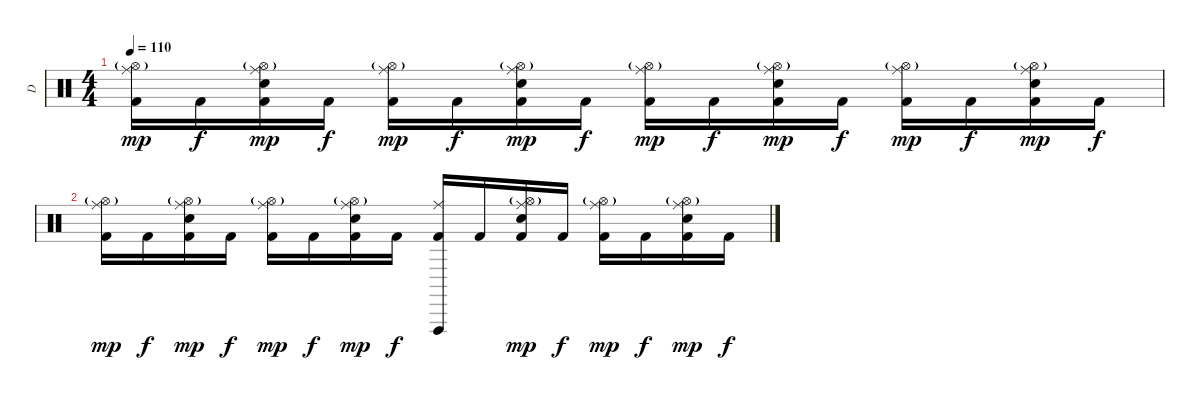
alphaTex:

\track ("D" "D") {instrument percussion}
\staff {score}
\articulation defaults
\ts (4 4)
\tempo 110
\clef neutral
\ks c
("Ride (middle)" "Hi-Hat (open)"{g} "Kick (hit) 2").16{dy mp} "Kick (hit) 2".16{dy f} ("Ride (middle)" "Hi-Hat (open)"{g} "Electric Snare (hit)" "Kick (hit) 2").16{dy mp} "Kick (hit) 2".16{dy f} ("Ride (middle)" "Hi-Hat (open)"{g} "Kick (hit) 2").16{dy mp} "Kick (hit) 2".16{dy f} ("Ride (middle)" "Hi-Hat (open)"{g} "Electric Snare (hit)" "Kick (hit) 2").16{dy mp} "Kick (hit) 2".16{dy f} ("Ride (middle)" "Hi-Hat (open)"{g} "Kick (hit) 2").16{dy mp} "Kick (hit) 2".16{dy f} ("Ride (middle)" "Hi-Hat (open)"{g} "Electric Snare (hit)" "Kick (hit) 2").16{dy mp} "Kick (hit) 2".16{dy f} ("Ride (middle)" "Hi-Hat (open)"{g} "Kick (hit) 2").16{dy mp} "Kick (hit) 2".16{dy f} ("Ride (middle)" "Hi-Hat (open)"{g} "Electric Snare (hit)" "Kick (hit) 2").16{dy mp} "Kick (hit) 2".16{dy f} |
("Ride (middle)" "Hi-Hat (open)"{g} "Kick (hit) 2").16{dy mp} "Kick (hit) 2".16{dy f} ("Ride (middle)" "Hi-Hat (open)"{g} "Electric Snare (hit)" "Kick (hit) 2").16{dy mp} "Kick (hit) 2".16{dy f} ("Ride (middle)" "Hi-Hat (open)"{g} "Kick (hit) 2").16{dy mp} "Kick (hit) 2".16{dy f} ("Ride (middle)" "Hi-Hat (open)"{g} "Electric Snare (hit)" "Kick (hit) 2").16{dy mp} "Kick (hit) 2".16{dy f} ("Ride (middle)" "Vibraslap (hit)" "Kick (hit) 2").16 "Kick (hit) 2".16 ("Ride (middle)" "Hi-Hat (open)"{g} "Electric Snare (hit)" "Kick (hit) 2").16{dy mp} "Kick (hit) 2".16{dy f} ("Ride (middle)" "Hi-Hat (open)"{g} "Kick (hit) 2").16{dy mp} "Kick (hit) 2".16{dy f} ("Ride (middle)" "Hi-Hat (open)"{g} "Electric Snare (hit)" "Kick (hit) 2").16{dy mp} "Kick (hit) 2".16{dy f}
